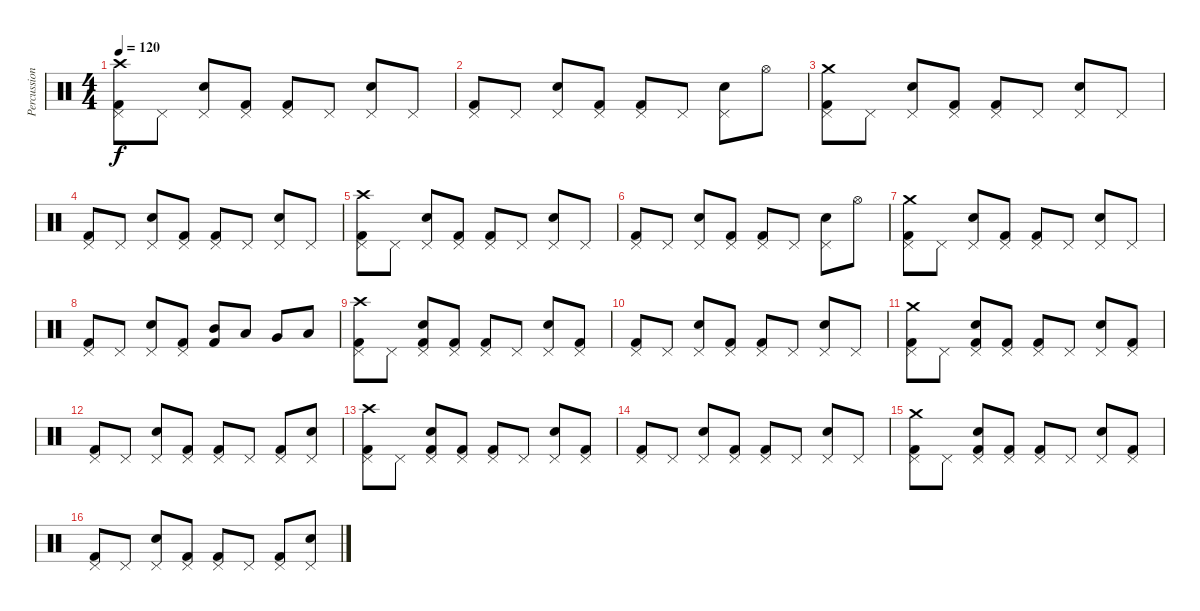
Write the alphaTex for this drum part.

\track ("Percussion" "Percussion") {instrument percussion}
\staff {score}
\articulation defaults
\ts (4 4)
\tempo 120
\clef neutral
\ks c
("Crash high (hit)" "Pedal Hi-Hat (hit)" "Kick (hit) 2").8{dy f} "Pedal Hi-Hat (hit)".8 ("Snare (hit) 2" "Pedal Hi-Hat (hit)").8 ("Pedal Hi-Hat (hit)" "Kick (hit) 2").8 ("Pedal Hi-Hat (hit)" "Kick (hit) 2").8 "Pedal Hi-Hat (hit)".8 ("Snare (hit) 2" "Pedal Hi-Hat (hit)").8 "Pedal Hi-Hat (hit)".8 |
("Pedal Hi-Hat (hit)" "Kick (hit) 2").8 "Pedal Hi-Hat (hit)".8 ("Snare (hit) 2" "Pedal Hi-Hat (hit)").8 ("Pedal Hi-Hat (hit)" "Kick (hit) 2").8 ("Pedal Hi-Hat (hit)" "Kick (hit) 2").8 "Pedal Hi-Hat (hit)".8 ("Snare (hit) 2" "Pedal Hi-Hat (hit)").8 "Hi-Hat (open)".8 |
("Crash medium (hit)" "Pedal Hi-Hat (hit)" "Kick (hit) 2").8 "Pedal Hi-Hat (hit)".8 ("Snare (hit) 2" "Pedal Hi-Hat (hit)").8 ("Pedal Hi-Hat (hit)" "Kick (hit) 2").8 ("Pedal Hi-Hat (hit)" "Kick (hit) 2").8 "Pedal Hi-Hat (hit)".8 ("Snare (hit) 2" "Pedal Hi-Hat (hit)").8 "Pedal Hi-Hat (hit)".8 |
("Pedal Hi-Hat (hit)" "Kick (hit) 2").8 "Pedal Hi-Hat (hit)".8 ("Snare (hit) 2" "Pedal Hi-Hat (hit)").8 ("Pedal Hi-Hat (hit)" "Kick (hit) 2").8 ("Pedal Hi-Hat (hit)" "Kick (hit) 2").8 "Pedal Hi-Hat (hit)".8 ("Snare (hit) 2" "Pedal Hi-Hat (hit)").8 "Pedal Hi-Hat (hit)".8 |
("Crash high (hit)" "Pedal Hi-Hat (hit)" "Kick (hit) 2").8 "Pedal Hi-Hat (hit)".8 ("Snare (hit) 2" "Pedal Hi-Hat (hit)").8 ("Pedal Hi-Hat (hit)" "Kick (hit) 2").8 ("Pedal Hi-Hat (hit)" "Kick (hit) 2").8 "Pedal Hi-Hat (hit)".8 ("Snare (hit) 2" "Pedal Hi-Hat (hit)").8 "Pedal Hi-Hat (hit)".8 |
("Pedal Hi-Hat (hit)" "Kick (hit) 2").8 "Pedal Hi-Hat (hit)".8 ("Snare (hit) 2" "Pedal Hi-Hat (hit)").8 ("Pedal Hi-Hat (hit)" "Kick (hit) 2").8 ("Pedal Hi-Hat (hit)" "Kick (hit) 2").8 "Pedal Hi-Hat (hit)".8 ("Snare (hit) 2" "Pedal Hi-Hat (hit)").8 "Hi-Hat (open)".8 |
("Crash medium (hit)" "Pedal Hi-Hat (hit)" "Kick (hit) 2").8 "Pedal Hi-Hat (hit)".8 ("Snare (hit) 2" "Pedal Hi-Hat (hit)").8 ("Pedal Hi-Hat (hit)" "Kick (hit) 2").8 ("Pedal Hi-Hat (hit)" "Kick (hit) 2").8 "Pedal Hi-Hat (hit)".8 ("Snare (hit) 2" "Pedal Hi-Hat (hit)").8 "Pedal Hi-Hat (hit)".8 |
("Pedal Hi-Hat (hit)" "Kick (hit) 2").8 "Pedal Hi-Hat (hit)".8 ("Snare (hit) 2" "Pedal Hi-Hat (hit)").8 ("Pedal Hi-Hat (hit)" "Kick (hit) 2").8 ("Mid Tom (hit)" "Kick (hit) 2").8 "Low Tom (hit)".8 "Very Low Tom (hit)".8 "Low Floor Tom (hit)".8 |
("Crash high (hit)" "Pedal Hi-Hat (hit)" "Kick (hit) 2").8 "Pedal Hi-Hat (hit)".8 ("Snare (hit) 2" "Pedal Hi-Hat (hit)" "Kick (hit) 2").8 ("Pedal Hi-Hat (hit)" "Kick (hit) 2").8 ("Pedal Hi-Hat (hit)" "Kick (hit) 2").8 "Pedal Hi-Hat (hit)".8 ("Snare (hit) 2" "Pedal Hi-Hat (hit)").8 ("Pedal Hi-Hat (hit)" "Kick (hit) 2").8 |
("Pedal Hi-Hat (hit)" "Kick (hit) 2").8 "Pedal Hi-Hat (hit)".8 ("Snare (hit) 2" "Pedal Hi-Hat (hit)").8 ("Pedal Hi-Hat (hit)" "Kick (hit) 2").8 ("Pedal Hi-Hat (hit)" "Kick (hit) 2").8 "Pedal Hi-Hat (hit)".8 ("Snare (hit) 2" "Pedal Hi-Hat (hit)").8 "Pedal Hi-Hat (hit)".8 |
("Crash medium (hit)" "Pedal Hi-Hat (hit)" "Kick (hit) 2").8 "Pedal Hi-Hat (hit)".8 ("Snare (hit) 2" "Pedal Hi-Hat (hit)" "Kick (hit) 2").8 ("Pedal Hi-Hat (hit)" "Kick (hit) 2").8 ("Pedal Hi-Hat (hit)" "Kick (hit) 2").8 "Pedal Hi-Hat (hit)".8 ("Snare (hit) 2" "Pedal Hi-Hat (hit)").8 ("Pedal Hi-Hat (hit)" "Kick (hit) 2").8 |
("Pedal Hi-Hat (hit)" "Kick (hit) 2").8 "Pedal Hi-Hat (hit)".8 ("Snare (hit) 2" "Pedal Hi-Hat (hit)").8 ("Pedal Hi-Hat (hit)" "Kick (hit) 2").8 ("Pedal Hi-Hat (hit)" "Kick (hit) 2").8 "Pedal Hi-Hat (hit)".8 ("Pedal Hi-Hat (hit)" "Kick (hit) 2").8 ("Snare (hit) 2" "Pedal Hi-Hat (hit)").8 |
("Crash high (hit)" "Pedal Hi-Hat (hit)" "Kick (hit) 2").8 "Pedal Hi-Hat (hit)".8 ("Snare (hit) 2" "Pedal Hi-Hat (hit)" "Kick (hit) 2").8 ("Pedal Hi-Hat (hit)" "Kick (hit) 2").8 ("Pedal Hi-Hat (hit)" "Kick (hit) 2").8 "Pedal Hi-Hat (hit)".8 ("Snare (hit) 2" "Pedal Hi-Hat (hit)").8 ("Pedal Hi-Hat (hit)" "Kick (hit) 2").8 |
("Pedal Hi-Hat (hit)" "Kick (hit) 2").8 "Pedal Hi-Hat (hit)".8 ("Snare (hit) 2" "Pedal Hi-Hat (hit)").8 ("Pedal Hi-Hat (hit)" "Kick (hit) 2").8 ("Pedal Hi-Hat (hit)" "Kick (hit) 2").8 "Pedal Hi-Hat (hit)".8 ("Snare (hit) 2" "Pedal Hi-Hat (hit)").8 "Pedal Hi-Hat (hit)".8 |
("Crash medium (hit)" "Pedal Hi-Hat (hit)" "Kick (hit) 2").8 "Pedal Hi-Hat (hit)".8 ("Snare (hit) 2" "Pedal Hi-Hat (hit)" "Kick (hit) 2").8 ("Pedal Hi-Hat (hit)" "Kick (hit) 2").8 ("Pedal Hi-Hat (hit)" "Kick (hit) 2").8 "Pedal Hi-Hat (hit)".8 ("Snare (hit) 2" "Pedal Hi-Hat (hit)").8 ("Pedal Hi-Hat (hit)" "Kick (hit) 2").8 |
("Pedal Hi-Hat (hit)" "Kick (hit) 2").8 "Pedal Hi-Hat (hit)".8 ("Snare (hit) 2" "Pedal Hi-Hat (hit)").8 ("Pedal Hi-Hat (hit)" "Kick (hit) 2").8 ("Pedal Hi-Hat (hit)" "Kick (hit) 2").8 "Pedal Hi-Hat (hit)".8 ("Pedal Hi-Hat (hit)" "Kick (hit) 2").8 ("Snare (hit) 2" "Pedal Hi-Hat (hit)").8
